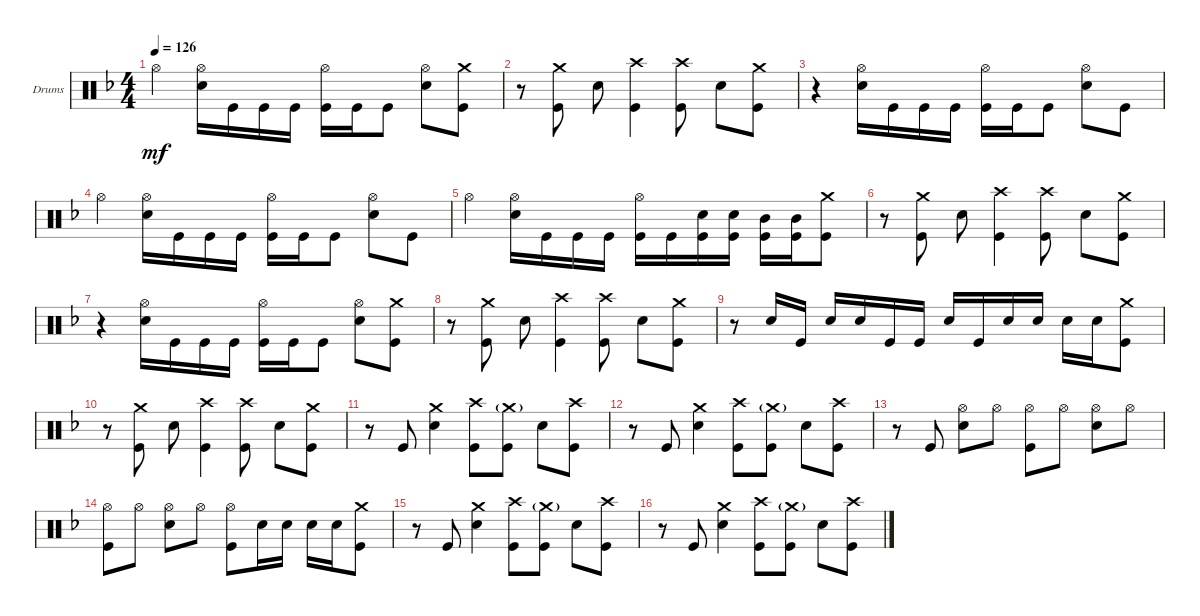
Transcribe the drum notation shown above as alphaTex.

\defaultSystemsLayout 4
\bracketExtendMode groupsimilarinstruments
\firstSystemTrackNameOrientation horizontal
\otherSystemsTrackNameOrientation horizontal
\track ("Drumkit" "Drums") {instrument percussion}
\staff {score}
\articulation defaults
\ts (4 4)
\tempo 126
\clef neutral
\ks f "Hi-Hat (open)".4{dy mf}
("Hi-Hat (open)" "Snare (hit) 2").16 "Kick (hit)".16 "Kick (hit)".16 "Kick (hit)".16 ("Hi-Hat (open)" "Kick (hit)").16 "Kick (hit)".16 "Kick (hit)".8 ("Hi-Hat (open)" "Snare (hit) 2").8 ("Kick (hit)" "Crash medium (hit)").8 |
r.8 ("Crash medium (hit)" "Kick (hit)").8 "Snare (hit) 2".8 ("Kick (hit)" "Crash high (hit)").4 ("Kick (hit)" "Crash high (hit)").8 "Snare (hit) 2".8 ("Crash medium (hit)" "Kick (hit)").8 |
r.4 ("Hi-Hat (open)" "Snare (hit) 2").16 "Kick (hit)".16 "Kick (hit)".16 "Kick (hit)".16 ("Hi-Hat (open)" "Kick (hit)").16 "Kick (hit)".16 "Kick (hit)".8 ("Hi-Hat (open)" "Snare (hit) 2").8 "Kick (hit)".8 |
"Hi-Hat (open)".4 ("Hi-Hat (open)" "Snare (hit) 2").16 "Kick (hit)".16 "Kick (hit)".16 "Kick (hit)".16 ("Hi-Hat (open)" "Kick (hit)").16 "Kick (hit)".16 "Kick (hit)".8 ("Hi-Hat (open)" "Snare (hit) 2").8 "Kick (hit)".8 |
"Hi-Hat (open)".4 ("Hi-Hat (open)" "Snare (hit) 2").16 "Kick (hit)".16 "Kick (hit)".16 "Kick (hit)".16 ("Hi-Hat (open)" "Kick (hit)").16 "Kick (hit)".16 ("Kick (hit)" "Snare (hit) 2").16 ("Kick (hit)" "Snare (hit) 2").16 ("Kick (hit)" "Mid Tom (hit)").16 ("Kick (hit)" "Mid Tom (hit)").16 ("Kick (hit)" "Crash medium (hit)").8 |
r.8 ("Crash medium (hit)" "Kick (hit)").8 "Snare (hit) 2".8 ("Kick (hit)" "Crash high (hit)").4 ("Kick (hit)" "Crash high (hit)").8 "Snare (hit) 2".8 ("Crash medium (hit)" "Kick (hit)").8 |
r.4 ("Hi-Hat (open)" "Snare (hit) 2").16 "Kick (hit)".16 "Kick (hit)".16 "Kick (hit)".16 ("Hi-Hat (open)" "Kick (hit)").16 "Kick (hit)".16 "Kick (hit)".8 ("Hi-Hat (open)" "Snare (hit) 2").8 ("Kick (hit)" "Crash medium (hit)").8 |
r.8 ("Crash medium (hit)" "Kick (hit)").8 "Snare (hit) 2".8 ("Kick (hit)" "Crash high (hit)").4 ("Kick (hit)" "Crash high (hit)").8 "Snare (hit) 2".8 ("Crash medium (hit)" "Kick (hit)").8 |
r.8 "Snare (hit) 2".16 "Kick (hit)".16 "Snare (hit) 2".16 "Snare (hit) 2".16 "Kick (hit)".16 "Kick (hit)".16 "Snare (hit) 2".16 "Kick (hit)".16 "Snare (hit) 2".16 "Snare (hit) 2".16 "Snare (hit) 2".16 "Snare (hit) 2".16 ("Kick (hit)" "Crash medium (hit)").8 |
r.8 ("Crash medium (hit)" "Kick (hit)").8 "Snare (hit) 2".8 ("Kick (hit)" "Crash high (hit)").4 ("Kick (hit)" "Crash high (hit)").8 "Snare (hit) 2".8 ("Crash medium (hit)" "Kick (hit)").8 |
r.8 "Kick (hit)".8 ("Snare (hit) 2" "Crash medium (hit)").4 ("Crash high (hit)" "Kick (hit)").8 ("Kick (hit)" "Crash medium (hit)"{g}).8 "Snare (hit) 2".8 ("Crash high (hit)" "Kick (hit)").8 |
r.8 "Kick (hit)".8 ("Crash medium (hit)" "Snare (hit) 2").4 ("Crash high (hit)" "Kick (hit)").8 ("Kick (hit)" "Crash medium (hit)"{g}).8 "Snare (hit) 2".8 ("Crash high (hit)" "Kick (hit)").8 |
r.8 "Kick (hit)".8 ("Snare (hit) 2" "Hi-Hat (open)").8 "Hi-Hat (open)".8 ("Hi-Hat (open)" "Kick (hit)").8 "Hi-Hat (open)".8 ("Snare (hit) 2" "Hi-Hat (open)").8 "Hi-Hat (open)".8 |
("Hi-Hat (open)" "Kick (hit)").8 "Hi-Hat (open)".8 ("Snare (hit) 2" "Hi-Hat (open)").8 "Hi-Hat (open)".8 ("Kick (hit)" "Hi-Hat (open)").8 "Snare (hit) 2".16 "Snare (hit) 2".16 "Snare (hit) 2".16 "Snare (hit) 2".16 ("Kick (hit)" "Crash medium (hit)").8 |
r.8 "Kick (hit)".8 ("Snare (hit) 2" "Crash medium (hit)").4 ("Crash high (hit)" "Kick (hit)").8 ("Kick (hit)" "Crash medium (hit)"{g}).8 "Snare (hit) 2".8 ("Crash high (hit)" "Kick (hit)").8 |
r.8 "Kick (hit)".8 ("Crash medium (hit)" "Snare (hit) 2").4 ("Crash high (hit)" "Kick (hit)").8 ("Kick (hit)" "Crash medium (hit)"{g}).8 "Snare (hit) 2".8 ("Crash high (hit)" "Kick (hit)").8
